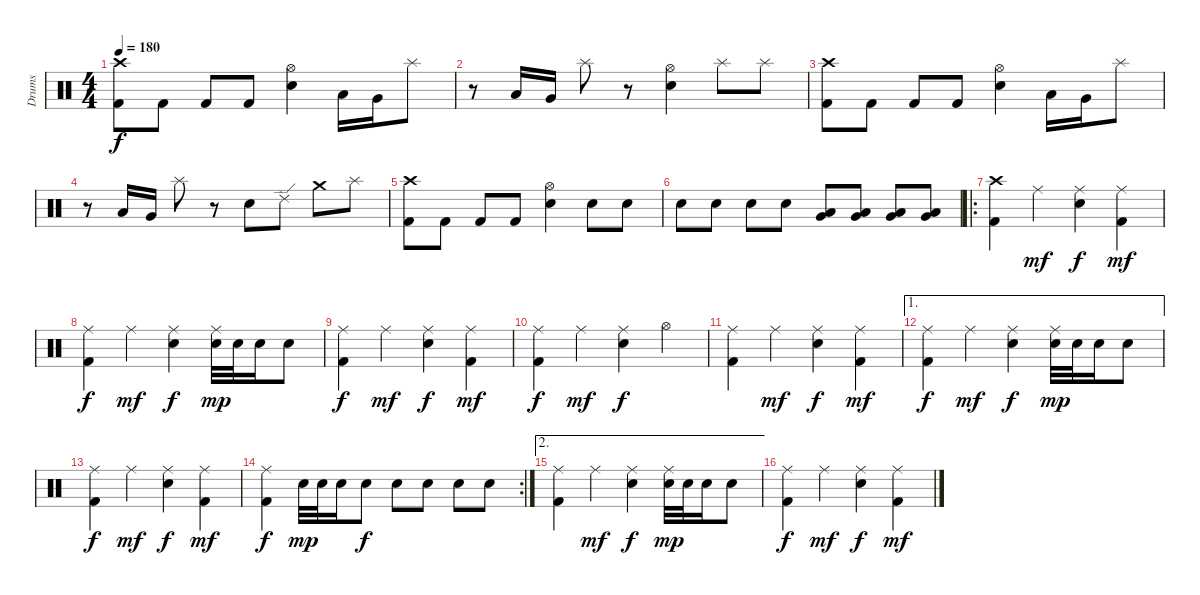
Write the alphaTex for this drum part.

\track ("Drums" "Drums") {instrument percussion}
\staff {score}
\articulation defaults
\ts (4 4)
\tempo 180
\clef neutral
\ks c
("Crash high (hit)" "Kick (hit) 2").8{dy f} "Kick (hit) 2".8 "Kick (hit) 2".8 "Kick (hit) 2".8 ("Hi-Hat (open)" "Snare (hit) 2").4 "Low Tom (hit)".16 "Very Low Tom (hit)".16 "Splash (hit)".8 |
r.8 "Low Tom (hit)".16 "Very Low Tom (hit)".16 "Splash (hit)".8 r.8 ("Hi-Hat (open)" "Snare (hit) 2").4 "Splash (hit)".8 "Splash (hit)".8 |
("Crash high (hit)" "Kick (hit) 2").8 "Kick (hit) 2".8 "Kick (hit) 2".8 "Kick (hit) 2".8 ("Hi-Hat (open)" "Snare (hit) 2").4 "Low Tom (hit)".16 "Very Low Tom (hit)".16 "Splash (hit)".8 |
r.8 "Low Tom (hit)".16 "Very Low Tom (hit)".16 "Splash (hit)".8 r.8 "Snare (hit) 2".8 "Ride (edge) 2".8 "Crash medium (hit)".8 "Splash (hit)".8 |
("Crash high (hit)" "Kick (hit) 2").8 "Kick (hit) 2".8 "Kick (hit) 2".8 "Kick (hit) 2".8 ("Hi-Hat (open)" "Snare (hit) 2").4 "Snare (hit) 2".8 "Snare (hit) 2".8 |
"Snare (hit) 2".8 "Snare (hit) 2".8 "Snare (hit) 2".8 "Snare (hit) 2".8 ("Very Low Tom (hit)" "Low Floor Tom (hit)").8 ("Very Low Tom (hit)" "Low Floor Tom (hit)").8 ("Very Low Tom (hit)" "Low Floor Tom (hit)").8 ("Very Low Tom (hit)" "Low Floor Tom (hit)").8 |
\ro
("Crash high (hit)" "Kick (hit) 2").4 "Ride (middle)".4{dy mf} ("Ride (middle)" "Snare (hit) 2").4{dy f} ("Ride (middle)" "Kick (hit) 2").4{dy mf} |
("Ride (middle)" "Kick (hit) 2").4{dy f} "Ride (middle)".4{dy mf} ("Ride (middle)" "Snare (hit) 2").4{dy f} ("Ride (middle)" "Snare (hit) 2").32{dy mp} "Snare (hit) 2".32 "Snare (hit) 2".16 "Snare (hit) 2".8 |
("Ride (middle)" "Kick (hit) 2").4{dy f} "Ride (middle)".4{dy mf} ("Ride (middle)" "Snare (hit) 2").4{dy f} ("Ride (middle)" "Kick (hit) 2").4{dy mf} |
("Ride (middle)" "Kick (hit) 2").4{dy f} "Ride (middle)".4{dy mf} ("Ride (middle)" "Snare (hit) 2").4{dy f} "Hi-Hat (open)".4 |
("Ride (middle)" "Kick (hit) 2").4 "Ride (middle)".4{dy mf} ("Ride (middle)" "Snare (hit) 2").4{dy f} ("Ride (middle)" "Kick (hit) 2").4{dy mf} |
\ae 1
("Ride (middle)" "Kick (hit) 2").4{dy f} "Ride (middle)".4{dy mf} ("Ride (middle)" "Snare (hit) 2").4{dy f} ("Ride (middle)" "Snare (hit) 2").32{dy mp} "Snare (hit) 2".32 "Snare (hit) 2".16 "Snare (hit) 2".8 |
("Ride (middle)" "Kick (hit) 2").4{dy f} "Ride (middle)".4{dy mf} ("Ride (middle)" "Snare (hit) 2").4{dy f} ("Ride (middle)" "Kick (hit) 2").4{dy mf} |
\rc 2
("Ride (middle)" "Kick (hit) 2").4{dy f} "Snare (hit) 2".32{dy mp} "Snare (hit) 2".32 "Snare (hit) 2".16 "Snare (hit) 2".8{dy f} "Snare (hit) 2".8 "Snare (hit) 2".8 "Snare (hit) 2".8 "Snare (hit) 2".8 |
\ae 2
("Ride (middle)" "Kick (hit) 2").4 "Ride (middle)".4{dy mf} ("Ride (middle)" "Snare (hit) 2").4{dy f} ("Ride (middle)" "Snare (hit) 2").32{dy mp} "Snare (hit) 2".32 "Snare (hit) 2".16 "Snare (hit) 2".8 |
("Ride (middle)" "Kick (hit) 2").4{dy f} "Ride (middle)".4{dy mf} ("Ride (middle)" "Snare (hit) 2").4{dy f} ("Ride (middle)" "Kick (hit) 2").4{dy mf}
